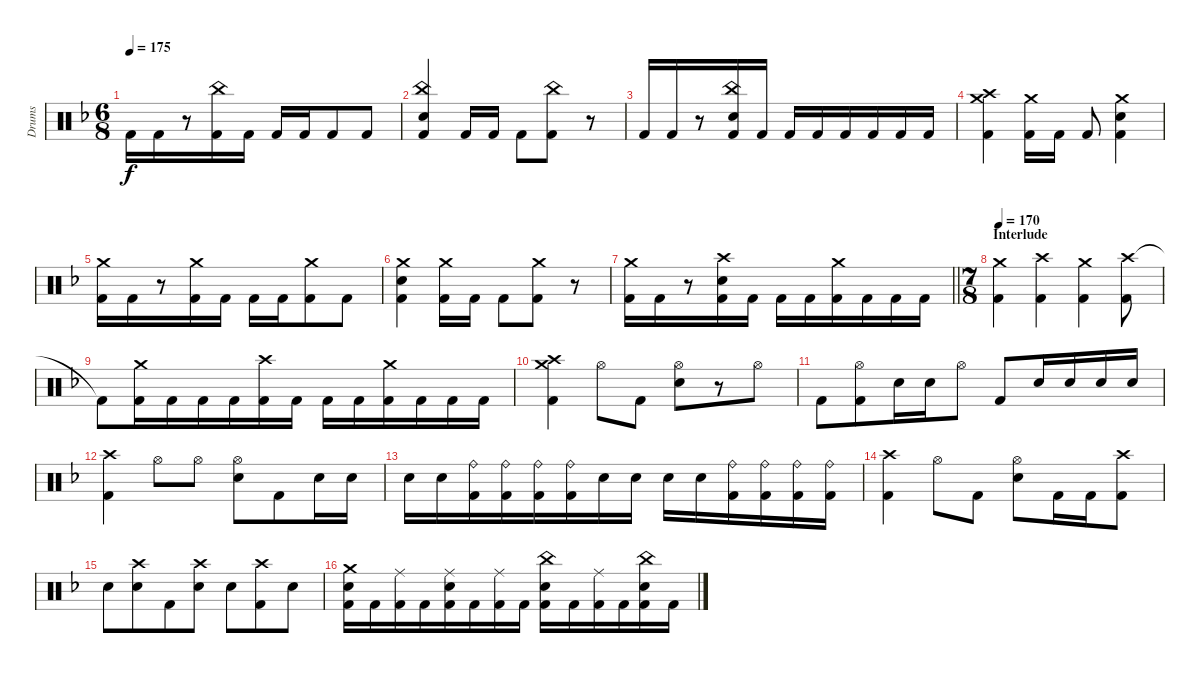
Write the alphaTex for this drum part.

\track ("Drums" "Drums") {instrument percussion}
\staff {score}
\articulation defaults
\ts (6 8)
\tempo 175
\clef neutral
\ks dminor "Kick (hit) 2".16{dy f} "Kick (hit) 2".16
r.8 ("China (hit)" "Kick (hit) 2").16 "Kick (hit) 2".16 "Kick (hit) 2".16 "Kick (hit) 2".16 "Kick (hit) 2".8 "Kick (hit) 2".8 |
("China (hit)" "Electric Snare (hit)" "Kick (hit) 2").4 "Kick (hit) 2".16 "Kick (hit) 2".16 "Kick (hit) 2".8 ("China (hit)" "Kick (hit) 2").8 r.8 |
"Kick (hit) 2".16 "Kick (hit) 2".16 r.8 ("China (hit)" "Electric Snare (hit)" "Kick (hit) 2").16 "Kick (hit) 2".16 "Kick (hit) 2".16 "Kick (hit) 2".16 "Kick (hit) 2".16 "Kick (hit) 2".16 "Kick (hit) 2".16 "Kick (hit) 2".16 |
("Crash medium (hit)" "Crash high (hit)" "Kick (hit) 2").4 ("Crash medium (hit)" "Kick (hit) 2").16 "Kick (hit) 2".16 "Kick (hit) 2".8 ("Crash medium (hit)" "Electric Snare (hit)" "Kick (hit) 2").4 |
("Crash medium (hit)" "Kick (hit) 2").16 "Kick (hit) 2".16 r.8 ("Crash medium (hit)" "Kick (hit) 2").16 "Kick (hit) 2".16 "Kick (hit) 2".16 "Kick (hit) 2".16 ("Crash medium (hit)" "Kick (hit) 2").8 "Kick (hit) 2".8 |
("Crash medium (hit)" "Electric Snare (hit)" "Kick (hit) 2").4 ("Crash medium (hit)" "Kick (hit) 2").16 "Kick (hit) 2".16 "Kick (hit) 2".8 ("Crash medium (hit)" "Kick (hit) 2").8 r.8 |
\barLineRight lightlight
("Crash medium (hit)" "Kick (hit) 2").16 "Kick (hit) 2".16 r.8 ("Crash high (hit)" "Electric Snare (hit)" "Kick (hit) 2").16 "Kick (hit) 2".16 "Kick (hit) 2".16 "Kick (hit) 2".16 ("Crash medium (hit)" "Kick (hit) 2").16 "Kick (hit) 2".16 "Kick (hit) 2".16 "Kick (hit) 2".16 |
\ts (7 8)
\section ("" "Interlude")
\tempo 170
("Crash medium (hit)" "Kick (hit) 2").4 ("Crash high (hit)" "Kick (hit) 2").4 ("Crash medium (hit)" "Kick (hit) 2").4 ("Crash high (hit)" "Kick (hit) 2").8 |
"Kick (hit) 2"{t}.8 ("Crash medium (hit)" "Kick (hit) 2").16 "Kick (hit) 2".16 "Kick (hit) 2".16 "Kick (hit) 2".16 ("Crash high (hit)" "Kick (hit) 2").16 "Kick (hit) 2".16 "Kick (hit) 2".16 "Kick (hit) 2".16 ("Crash medium (hit)" "Kick (hit) 2").16 "Kick (hit) 2".16 "Kick (hit) 2".16 "Kick (hit) 2".16 |
("Crash medium (hit)" "Crash high (hit)" "Kick (hit) 2").4 "Hi-Hat (open)".8 "Kick (hit) 2".8 ("Hi-Hat (open)" "Electric Snare (hit)").8 r.8 "Hi-Hat (open)".8 |
"Kick (hit) 2".8 ("Hi-Hat (open)" "Kick (hit) 2").8 "Electric Snare (hit)".16 "Electric Snare (hit)".16 "Hi-Hat (open)".8 "Kick (hit) 2".8 "Electric Snare (hit)".16 "Electric Snare (hit)".16 "Electric Snare (hit)".16 "Electric Snare (hit)".16 |
("Crash high (hit)" "Kick (hit) 2").4 "Hi-Hat (open)".8 "Hi-Hat (open)".8 ("Hi-Hat (open)" "Electric Snare (hit)").8 "Kick (hit) 2".8 "Electric Snare (hit)".16 "Electric Snare (hit)".16 |
"Electric Snare (hit)".16 "Electric Snare (hit)".16 ("Ride (bell)" "Kick (hit) 2").16 ("Ride (bell)" "Kick (hit) 2").16 ("Ride (bell)" "Kick (hit) 2").16 ("Ride (bell)" "Kick (hit) 2").16 "Electric Snare (hit)".16 "Electric Snare (hit)".16 "Electric Snare (hit)".16 "Electric Snare (hit)".16 ("Ride (bell)" "Kick (hit) 2").16 ("Ride (bell)" "Kick (hit) 2").16 ("Ride (bell)" "Kick (hit) 2").16 ("Ride (bell)" "Kick (hit) 2").16 |
("Crash high (hit)" "Kick (hit) 2").4 "Hi-Hat (open)".8 "Kick (hit) 2".8 ("Hi-Hat (open)" "Electric Snare (hit)").8 "Kick (hit) 2".16 "Kick (hit) 2".16 ("Crash high (hit)" "Kick (hit) 2").8 |
"Electric Snare (hit)".8 ("Crash high (hit)" "Electric Snare (hit)").8 "Kick (hit) 2".8 ("Crash high (hit)" "Electric Snare (hit)").8 "Electric Snare (hit)".8 ("Crash high (hit)" "Kick (hit) 2").8 "Electric Snare (hit)".8 |
("Crash medium (hit)" "Electric Snare (hit)" "Kick (hit) 2").16 "Kick (hit) 2".16 ("Ride (middle)" "Kick (hit) 2").16 "Kick (hit) 2".16 ("Ride (middle)" "Electric Snare (hit)" "Kick (hit) 2").16 "Kick (hit) 2".16 ("Ride (middle)" "Kick (hit) 2").16 "Kick (hit) 2".16 ("China (hit)" "Electric Snare (hit)" "Kick (hit) 2").16 "Kick (hit) 2".16 ("Ride (middle)" "Kick (hit) 2").16 "Kick (hit) 2".16 ("China (hit)" "Electric Snare (hit)" "Kick (hit) 2").16 "Kick (hit) 2".16
